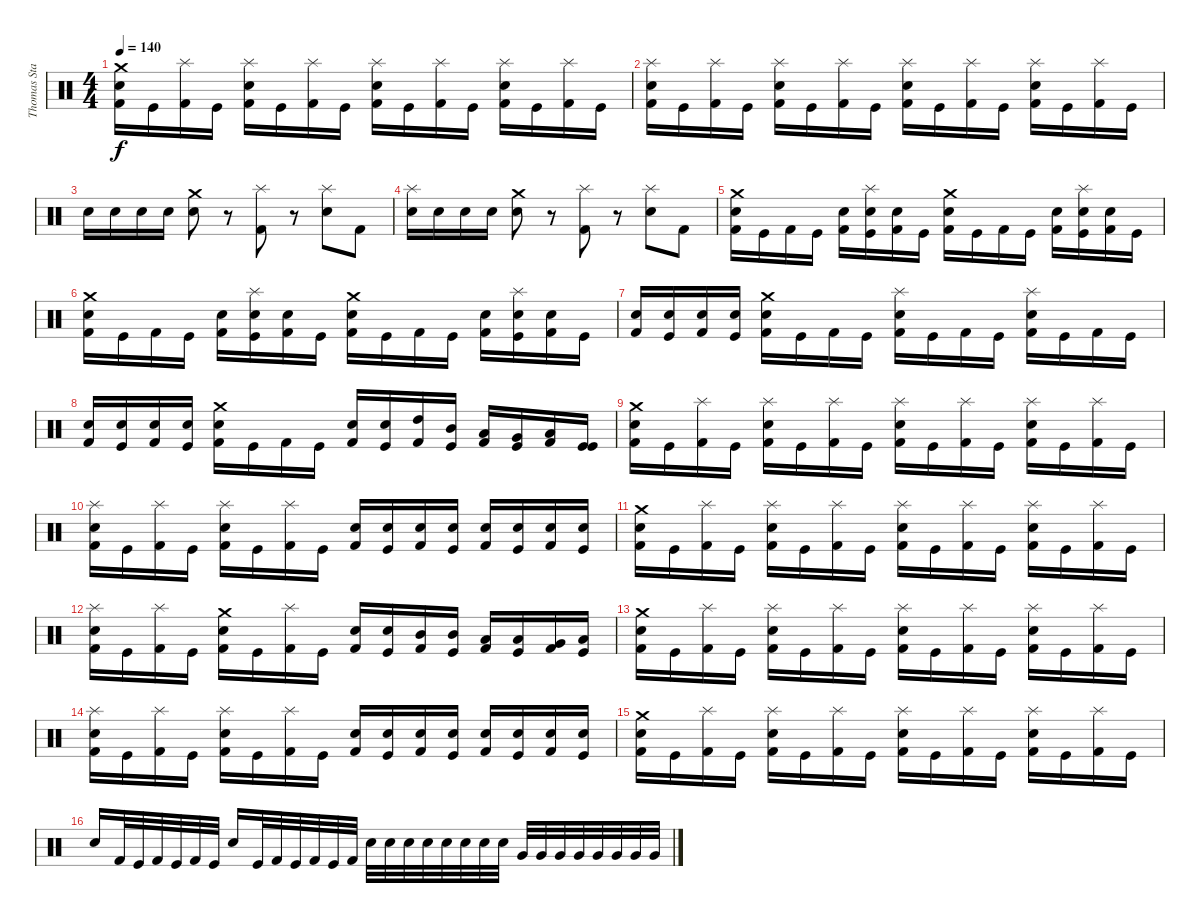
\track ("Thomas Stauch" "Thomas Sta") {instrument percussion}
\staff {score}
\articulation defaults
\ts (4 4)
\tempo 140
\clef neutral
\ks c
("Crash medium (hit)" "Electric Snare (hit)" "Kick (hit) 2").16{dy f} "Kick (hit)".16 ("Splash (hit)" "Kick (hit) 2").16 "Kick (hit)".16 ("Splash (hit)" "Electric Snare (hit)" "Kick (hit) 2").16 "Kick (hit)".16 ("Splash (hit)" "Kick (hit) 2").16 "Kick (hit)".16 ("Splash (hit)" "Electric Snare (hit)" "Kick (hit) 2").16 "Kick (hit)".16 ("Splash (hit)" "Kick (hit) 2").16 "Kick (hit)".16 ("Splash (hit)" "Electric Snare (hit)" "Kick (hit) 2").16 "Kick (hit)".16 ("Splash (hit)" "Kick (hit) 2").16 "Kick (hit)".16 |
("Splash (hit)" "Electric Snare (hit)" "Kick (hit) 2").16 "Kick (hit)".16 ("Splash (hit)" "Kick (hit) 2").16 "Kick (hit)".16 ("Splash (hit)" "Electric Snare (hit)" "Kick (hit) 2").16 "Kick (hit)".16 ("Splash (hit)" "Kick (hit) 2").16 "Kick (hit)".16 ("Splash (hit)" "Electric Snare (hit)" "Kick (hit) 2").16 "Kick (hit)".16 ("Splash (hit)" "Kick (hit) 2").16 "Kick (hit)".16 ("Splash (hit)" "Electric Snare (hit)" "Kick (hit) 2").16 "Kick (hit)".16 ("Splash (hit)" "Kick (hit) 2").16 "Kick (hit)".16 |
"Electric Snare (hit)".16 "Electric Snare (hit)".16 "Electric Snare (hit)".16 "Electric Snare (hit)".16 ("Crash medium (hit)" "Electric Snare (hit)").8 r.8 ("Splash (hit)" "Kick (hit) 2").8 r.8 ("Splash (hit)" "Electric Snare (hit)").8 "Kick (hit) 2".8 |
("Splash (hit)" "Electric Snare (hit)").16 "Electric Snare (hit)".16 "Electric Snare (hit)".16 "Electric Snare (hit)".16 ("Crash medium (hit)" "Electric Snare (hit)").8 r.8 ("Splash (hit)" "Kick (hit) 2").8 r.8 ("Splash (hit)" "Electric Snare (hit)").8 "Kick (hit) 2".8 |
("Crash medium (hit)" "Electric Snare (hit)" "Kick (hit) 2").16 "Kick (hit)".16 "Kick (hit) 2".16 "Kick (hit)".16 ("Electric Snare (hit)" "Kick (hit) 2").16 ("Splash (hit)" "Electric Snare (hit)" "Kick (hit)").16 ("Electric Snare (hit)" "Kick (hit) 2").16 "Kick (hit)".16 ("Crash medium (hit)" "Electric Snare (hit)" "Kick (hit) 2").16 "Kick (hit)".16 "Kick (hit) 2".16 "Kick (hit)".16 ("Electric Snare (hit)" "Kick (hit) 2").16 ("Splash (hit)" "Electric Snare (hit)" "Kick (hit)").16 ("Electric Snare (hit)" "Kick (hit) 2").16 "Kick (hit)".16 |
("Crash medium (hit)" "Electric Snare (hit)" "Kick (hit) 2").16 "Kick (hit)".16 "Kick (hit) 2".16 "Kick (hit)".16 ("Electric Snare (hit)" "Kick (hit) 2").16 ("Splash (hit)" "Electric Snare (hit)" "Kick (hit)").16 ("Electric Snare (hit)" "Kick (hit) 2").16 "Kick (hit)".16 ("Crash medium (hit)" "Electric Snare (hit)" "Kick (hit) 2").16 "Kick (hit)".16 "Kick (hit) 2".16 "Kick (hit)".16 ("Electric Snare (hit)" "Kick (hit) 2").16 ("Splash (hit)" "Electric Snare (hit)" "Kick (hit)").16 ("Electric Snare (hit)" "Kick (hit) 2").16 "Kick (hit)".16 |
("Electric Snare (hit)" "Kick (hit) 2").16 ("Electric Snare (hit)" "Kick (hit)").16 ("Electric Snare (hit)" "Kick (hit) 2").16 ("Electric Snare (hit)" "Kick (hit)").16 ("Crash medium (hit)" "Electric Snare (hit)" "Kick (hit) 2").16 "Kick (hit)".16 "Kick (hit) 2".16 "Kick (hit)".16 ("Splash (hit)" "Electric Snare (hit)" "Kick (hit) 2").16 "Kick (hit)".16 "Kick (hit) 2".16 "Kick (hit)".16 ("Splash (hit)" "Electric Snare (hit)" "Kick (hit) 2").16 "Kick (hit)".16 "Kick (hit) 2".16 "Kick (hit)".16 |
("Electric Snare (hit)" "Kick (hit) 2").16 ("Electric Snare (hit)" "Kick (hit)").16 ("Electric Snare (hit)" "Kick (hit) 2").16 ("Electric Snare (hit)" "Kick (hit)").16 ("Crash medium (hit)" "Electric Snare (hit)" "Kick (hit) 2").16 "Kick (hit)".16 "Kick (hit) 2".16 "Kick (hit)".16 ("Electric Snare (hit)" "Kick (hit) 2").16 ("Electric Snare (hit)" "Kick (hit)").16 ("High Tom (hit)" "Kick (hit) 2").16 ("Mid Tom (hit)" "Kick (hit)").16 ("Low Tom (hit)" "Kick (hit) 2").16 ("Very Low Tom (hit)" "Kick (hit)").16 ("Low Floor Tom (hit)" "Kick (hit) 2").16 ("Kick (hit)" "Kick (hit)").16 |
("Crash medium (hit)" "Electric Snare (hit)" "Kick (hit) 2").16 "Kick (hit)".16 ("Splash (hit)" "Kick (hit) 2").16 "Kick (hit)".16 ("Splash (hit)" "Electric Snare (hit)" "Kick (hit) 2").16 "Kick (hit)".16 ("Splash (hit)" "Kick (hit) 2").16 "Kick (hit)".16 ("Splash (hit)" "Electric Snare (hit)" "Kick (hit) 2").16 "Kick (hit)".16 ("Splash (hit)" "Kick (hit) 2").16 "Kick (hit)".16 ("Splash (hit)" "Electric Snare (hit)" "Kick (hit) 2").16 "Kick (hit)".16 ("Splash (hit)" "Kick (hit) 2").16 "Kick (hit)".16 |
("Splash (hit)" "Electric Snare (hit)" "Kick (hit) 2").16 "Kick (hit)".16 ("Splash (hit)" "Kick (hit) 2").16 "Kick (hit)".16 ("Splash (hit)" "Electric Snare (hit)" "Kick (hit) 2").16 "Kick (hit)".16 ("Splash (hit)" "Kick (hit) 2").16 "Kick (hit)".16 ("Electric Snare (hit)" "Kick (hit) 2").16 ("Electric Snare (hit)" "Kick (hit)").16 ("Electric Snare (hit)" "Kick (hit) 2").16 ("Electric Snare (hit)" "Kick (hit)").16 ("Electric Snare (hit)" "Kick (hit) 2").16 ("Electric Snare (hit)" "Kick (hit)").16 ("Electric Snare (hit)" "Kick (hit) 2").16 ("Electric Snare (hit)" "Kick (hit)").16 |
("Crash medium (hit)" "Electric Snare (hit)" "Kick (hit) 2").16 "Kick (hit)".16 ("Splash (hit)" "Kick (hit) 2").16 "Kick (hit)".16 ("Splash (hit)" "Electric Snare (hit)" "Kick (hit) 2").16 "Kick (hit)".16 ("Splash (hit)" "Kick (hit) 2").16 "Kick (hit)".16 ("Splash (hit)" "Electric Snare (hit)" "Kick (hit) 2").16 "Kick (hit)".16 ("Splash (hit)" "Kick (hit) 2").16 "Kick (hit)".16 ("Splash (hit)" "Electric Snare (hit)" "Kick (hit) 2").16 "Kick (hit)".16 ("Splash (hit)" "Kick (hit) 2").16 "Kick (hit)".16 |
("Splash (hit)" "Electric Snare (hit)" "Kick (hit) 2").16 "Kick (hit)".16 ("Splash (hit)" "Kick (hit) 2").16 "Kick (hit)".16 ("Crash medium (hit)" "Electric Snare (hit)" "Kick (hit) 2").16 "Kick (hit)".16 ("Splash (hit)" "Kick (hit) 2").16 "Kick (hit)".16 ("Electric Snare (hit)" "Kick (hit) 2").16 ("Electric Snare (hit)" "Kick (hit)").16 ("Mid Tom (hit)" "Kick (hit) 2").16 ("Mid Tom (hit)" "Kick (hit)").16 ("Low Tom (hit)" "Kick (hit) 2").16 ("Low Tom (hit)" "Kick (hit)").16 ("Very Low Tom (hit)" "Kick (hit) 2").16 ("Low Floor Tom (hit)" "Kick (hit)").16 |
("Crash medium (hit)" "Electric Snare (hit)" "Kick (hit) 2").16 "Kick (hit)".16 ("Splash (hit)" "Kick (hit) 2").16 "Kick (hit)".16 ("Splash (hit)" "Electric Snare (hit)" "Kick (hit) 2").16 "Kick (hit)".16 ("Splash (hit)" "Kick (hit) 2").16 "Kick (hit)".16 ("Splash (hit)" "Electric Snare (hit)" "Kick (hit) 2").16 "Kick (hit)".16 ("Splash (hit)" "Kick (hit) 2").16 "Kick (hit)".16 ("Splash (hit)" "Electric Snare (hit)" "Kick (hit) 2").16 "Kick (hit)".16 ("Splash (hit)" "Kick (hit) 2").16 "Kick (hit)".16 |
("Splash (hit)" "Electric Snare (hit)" "Kick (hit) 2").16 "Kick (hit)".16 ("Splash (hit)" "Kick (hit) 2").16 "Kick (hit)".16 ("Splash (hit)" "Electric Snare (hit)" "Kick (hit) 2").16 "Kick (hit)".16 ("Splash (hit)" "Kick (hit) 2").16 "Kick (hit)".16 ("Electric Snare (hit)" "Kick (hit) 2").16 ("Electric Snare (hit)" "Kick (hit)").16 ("Electric Snare (hit)" "Kick (hit) 2").16 ("Electric Snare (hit)" "Kick (hit)").16 ("Electric Snare (hit)" "Kick (hit) 2").16 ("Electric Snare (hit)" "Kick (hit)").16 ("Electric Snare (hit)" "Kick (hit) 2").16 ("Electric Snare (hit)" "Kick (hit)").16 |
("Crash medium (hit)" "Electric Snare (hit)" "Kick (hit) 2").16 "Kick (hit)".16 ("Splash (hit)" "Kick (hit) 2").16 "Kick (hit)".16 ("Splash (hit)" "Electric Snare (hit)" "Kick (hit) 2").16 "Kick (hit)".16 ("Splash (hit)" "Kick (hit) 2").16 "Kick (hit)".16 ("Splash (hit)" "Electric Snare (hit)" "Kick (hit) 2").16 "Kick (hit)".16 ("Splash (hit)" "Kick (hit) 2").16 "Kick (hit)".16 ("Splash (hit)" "Electric Snare (hit)" "Kick (hit) 2").16 "Kick (hit)".16 ("Splash (hit)" "Kick (hit) 2").16 "Kick (hit)".16 |
"Electric Snare (hit)".16 "Kick (hit) 2".32 "Kick (hit)".32 "Kick (hit) 2".32 "Kick (hit)".32 "Kick (hit) 2".32 "Kick (hit)".32 "Electric Snare (hit)".16 "Kick (hit)".32 "Kick (hit) 2".32 "Kick (hit)".32 "Kick (hit) 2".32 "Kick (hit)".32 "Kick (hit) 2".32 "Electric Snare (hit)".32 "Electric Snare (hit)".32 "Electric Snare (hit)".32 "Electric Snare (hit)".32 "Electric Snare (hit)".32 "Electric Snare (hit)".32 "Electric Snare (hit)".32 "Electric Snare (hit)".32 "Very Low Tom (hit)".32 "Very Low Tom (hit)".32 "Very Low Tom (hit)".32 "Very Low Tom (hit)".32 "Very Low Tom (hit)".32 "Very Low Tom (hit)".32 "Very Low Tom (hit)".32 "Very Low Tom (hit)".32
